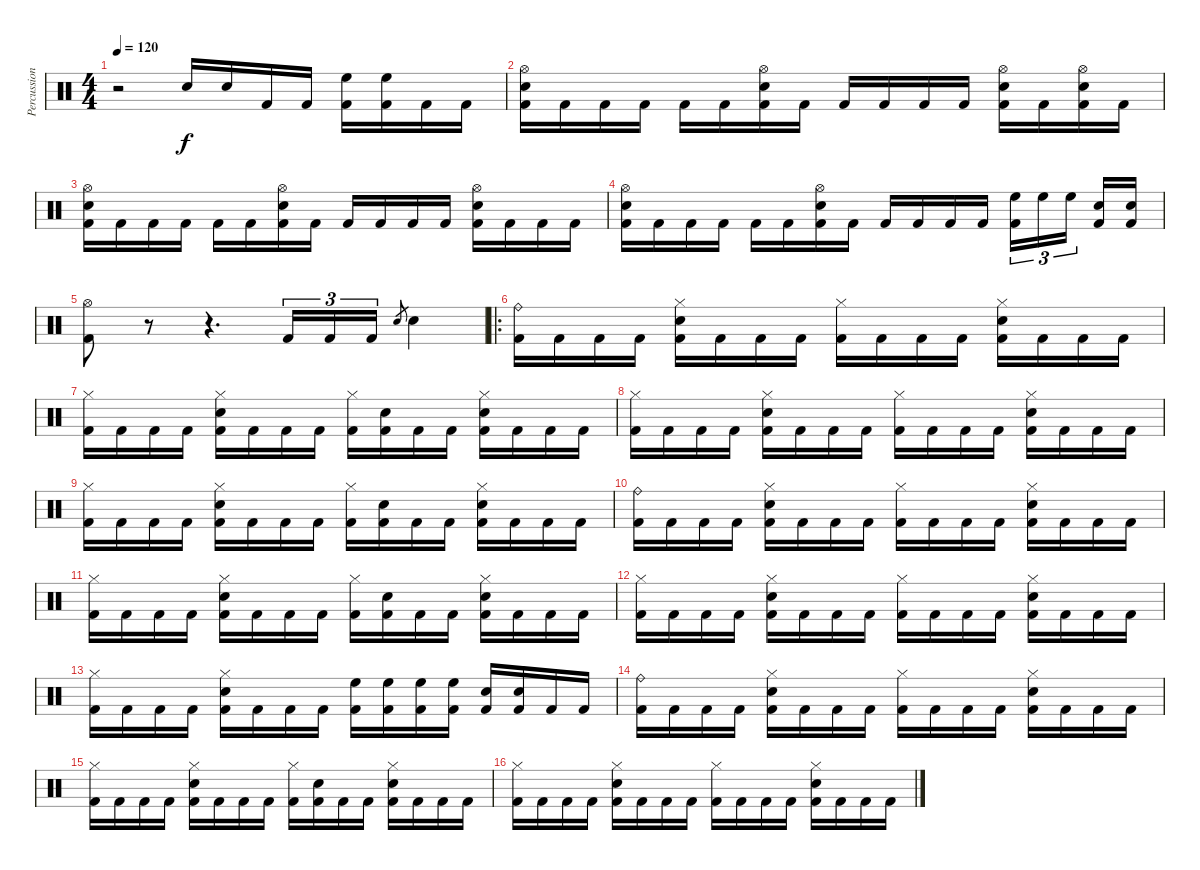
\track ("Percussions" "Percussion") {instrument percussion}
\staff {score}
\articulation defaults
\ts (4 4)
\tempo 120
\clef neutral
\ks c
r.2{dy f} "Snare (hit) 2".16 "Snare (hit) 2".16 "Kick (hit) 2".16 "Kick (hit) 2".16 ("High Floor Tom (hit)" "Kick (hit) 2").16 ("High Floor Tom (hit)" "Kick (hit) 2").16 "Kick (hit) 2".16 "Kick (hit) 2".16 |
("Hi-Hat (open)" "Snare (hit) 2" "Kick (hit) 2").16 "Kick (hit) 2".16 "Kick (hit) 2".16 "Kick (hit) 2".16 "Kick (hit) 2".16 "Kick (hit) 2".16 ("Hi-Hat (open)" "Snare (hit) 2" "Kick (hit) 2").16 "Kick (hit) 2".16 "Kick (hit) 2".16 "Kick (hit) 2".16 "Kick (hit) 2".16 "Kick (hit) 2".16 ("Hi-Hat (open)" "Snare (hit) 2" "Kick (hit) 2").16 "Kick (hit) 2".16 ("Hi-Hat (open)" "Snare (hit) 2" "Kick (hit) 2").16 "Kick (hit) 2".16 |
("Hi-Hat (open)" "Snare (hit) 2" "Kick (hit) 2").16 "Kick (hit) 2".16 "Kick (hit) 2".16 "Kick (hit) 2".16 "Kick (hit) 2".16 "Kick (hit) 2".16 ("Hi-Hat (open)" "Snare (hit) 2" "Kick (hit) 2").16 "Kick (hit) 2".16 "Kick (hit) 2".16 "Kick (hit) 2".16 "Kick (hit) 2".16 "Kick (hit) 2".16 ("Hi-Hat (open)" "Snare (hit) 2" "Kick (hit) 2").16 "Kick (hit) 2".16 "Kick (hit) 2".16 "Kick (hit) 2".16 |
("Hi-Hat (open)" "Snare (hit) 2" "Kick (hit) 2").16 "Kick (hit) 2".16 "Kick (hit) 2".16 "Kick (hit) 2".16 "Kick (hit) 2".16 "Kick (hit) 2".16 ("Hi-Hat (open)" "Snare (hit) 2" "Kick (hit) 2").16 "Kick (hit) 2".16 "Kick (hit) 2".16 "Kick (hit) 2".16 "Kick (hit) 2".16 "Kick (hit) 2".16 ("High Floor Tom (hit)" "Kick (hit) 2").16{tu (3 2)} "High Floor Tom (hit)".16{tu (3 2)} "High Floor Tom (hit)".16{tu (3 2)} ("Snare (hit) 2" "Kick (hit) 2").16 ("Snare (hit) 2" "Kick (hit) 2").16 |
("Hi-Hat (open)" "Kick (hit) 2").8 r.8 r.4{d} "Kick (hit) 2".16{tu (3 2)} "Kick (hit) 2".16{tu (3 2)} "Kick (hit) 2".16{tu (3 2)} "Snare (hit) 2".8{gr} "Snare (hit) 2".4 |
\ro
("Ride (bell)" "Kick (hit) 2").16 "Kick (hit) 2".16 "Kick (hit) 2".16 "Kick (hit) 2".16 ("Hi-Hat (closed)" "Snare (hit) 2" "Kick (hit) 2").16 "Kick (hit) 2".16 "Kick (hit) 2".16 "Kick (hit) 2".16 ("Hi-Hat (closed)" "Kick (hit) 2").16 "Kick (hit) 2".16 "Kick (hit) 2".16 "Kick (hit) 2".16 ("Hi-Hat (closed)" "Snare (hit) 2" "Kick (hit) 2").16 "Kick (hit) 2".16 "Kick (hit) 2".16 "Kick (hit) 2".16 |
("Hi-Hat (closed)" "Kick (hit) 2").16 "Kick (hit) 2".16 "Kick (hit) 2".16 "Kick (hit) 2".16 ("Hi-Hat (closed)" "Snare (hit) 2" "Kick (hit) 2").16 "Kick (hit) 2".16 "Kick (hit) 2".16 "Kick (hit) 2".16 ("Hi-Hat (closed)" "Kick (hit) 2").16 ("Snare (hit) 2" "Kick (hit) 2").16 "Kick (hit) 2".16 "Kick (hit) 2".16 ("Hi-Hat (closed)" "Snare (hit) 2" "Kick (hit) 2").16 "Kick (hit) 2".16 "Kick (hit) 2".16 "Kick (hit) 2".16 |
("Hi-Hat (closed)" "Kick (hit) 2").16 "Kick (hit) 2".16 "Kick (hit) 2".16 "Kick (hit) 2".16 ("Hi-Hat (closed)" "Snare (hit) 2" "Kick (hit) 2").16 "Kick (hit) 2".16 "Kick (hit) 2".16 "Kick (hit) 2".16 ("Hi-Hat (closed)" "Kick (hit) 2").16 "Kick (hit) 2".16 "Kick (hit) 2".16 "Kick (hit) 2".16 ("Hi-Hat (closed)" "Snare (hit) 2" "Kick (hit) 2").16 "Kick (hit) 2".16 "Kick (hit) 2".16 "Kick (hit) 2".16 |
("Hi-Hat (closed)" "Kick (hit) 2").16 "Kick (hit) 2".16 "Kick (hit) 2".16 "Kick (hit) 2".16 ("Hi-Hat (closed)" "Snare (hit) 2" "Kick (hit) 2").16 "Kick (hit) 2".16 "Kick (hit) 2".16 "Kick (hit) 2".16 ("Hi-Hat (closed)" "Kick (hit) 2").16 ("Snare (hit) 2" "Kick (hit) 2").16 "Kick (hit) 2".16 "Kick (hit) 2".16 ("Hi-Hat (closed)" "Snare (hit) 2" "Kick (hit) 2").16 "Kick (hit) 2".16 "Kick (hit) 2".16 "Kick (hit) 2".16 |
("Ride (bell)" "Kick (hit) 2").16 "Kick (hit) 2".16 "Kick (hit) 2".16 "Kick (hit) 2".16 ("Hi-Hat (closed)" "Snare (hit) 2" "Kick (hit) 2").16 "Kick (hit) 2".16 "Kick (hit) 2".16 "Kick (hit) 2".16 ("Hi-Hat (closed)" "Kick (hit) 2").16 "Kick (hit) 2".16 "Kick (hit) 2".16 "Kick (hit) 2".16 ("Hi-Hat (closed)" "Snare (hit) 2" "Kick (hit) 2").16 "Kick (hit) 2".16 "Kick (hit) 2".16 "Kick (hit) 2".16 |
("Hi-Hat (closed)" "Kick (hit) 2").16 "Kick (hit) 2".16 "Kick (hit) 2".16 "Kick (hit) 2".16 ("Hi-Hat (closed)" "Snare (hit) 2" "Kick (hit) 2").16 "Kick (hit) 2".16 "Kick (hit) 2".16 "Kick (hit) 2".16 ("Hi-Hat (closed)" "Kick (hit) 2").16 ("Snare (hit) 2" "Kick (hit) 2").16 "Kick (hit) 2".16 "Kick (hit) 2".16 ("Hi-Hat (closed)" "Snare (hit) 2" "Kick (hit) 2").16 "Kick (hit) 2".16 "Kick (hit) 2".16 "Kick (hit) 2".16 |
("Hi-Hat (closed)" "Kick (hit) 2").16 "Kick (hit) 2".16 "Kick (hit) 2".16 "Kick (hit) 2".16 ("Hi-Hat (closed)" "Snare (hit) 2" "Kick (hit) 2").16 "Kick (hit) 2".16 "Kick (hit) 2".16 "Kick (hit) 2".16 ("Hi-Hat (closed)" "Kick (hit) 2").16 "Kick (hit) 2".16 "Kick (hit) 2".16 "Kick (hit) 2".16 ("Hi-Hat (closed)" "Snare (hit) 2" "Kick (hit) 2").16 "Kick (hit) 2".16 "Kick (hit) 2".16 "Kick (hit) 2".16 |
("Hi-Hat (closed)" "Kick (hit) 2").16 "Kick (hit) 2".16 "Kick (hit) 2".16 "Kick (hit) 2".16 ("Hi-Hat (closed)" "Snare (hit) 2" "Kick (hit) 2").16 "Kick (hit) 2".16 "Kick (hit) 2".16 "Kick (hit) 2".16 ("High Floor Tom (hit)" "Kick (hit) 2").16 ("High Floor Tom (hit)" "Kick (hit) 2").16 ("High Floor Tom (hit)" "Kick (hit) 2").16 ("High Floor Tom (hit)" "Kick (hit) 2").16 ("Snare (hit) 2" "Kick (hit) 2").16 ("Snare (hit) 2" "Kick (hit) 2").16 "Kick (hit) 2".16 "Kick (hit) 2".16 |
("Ride (bell)" "Kick (hit) 2").16 "Kick (hit) 2".16 "Kick (hit) 2".16 "Kick (hit) 2".16 ("Hi-Hat (closed)" "Snare (hit) 2" "Kick (hit) 2").16 "Kick (hit) 2".16 "Kick (hit) 2".16 "Kick (hit) 2".16 ("Hi-Hat (closed)" "Kick (hit) 2").16 "Kick (hit) 2".16 "Kick (hit) 2".16 "Kick (hit) 2".16 ("Hi-Hat (closed)" "Snare (hit) 2" "Kick (hit) 2").16 "Kick (hit) 2".16 "Kick (hit) 2".16 "Kick (hit) 2".16 |
("Hi-Hat (closed)" "Kick (hit) 2").16 "Kick (hit) 2".16 "Kick (hit) 2".16 "Kick (hit) 2".16 ("Hi-Hat (closed)" "Snare (hit) 2" "Kick (hit) 2").16 "Kick (hit) 2".16 "Kick (hit) 2".16 "Kick (hit) 2".16 ("Hi-Hat (closed)" "Kick (hit) 2").16 ("Snare (hit) 2" "Kick (hit) 2").16 "Kick (hit) 2".16 "Kick (hit) 2".16 ("Hi-Hat (closed)" "Snare (hit) 2" "Kick (hit) 2").16 "Kick (hit) 2".16 "Kick (hit) 2".16 "Kick (hit) 2".16 |
("Hi-Hat (closed)" "Kick (hit) 2").16 "Kick (hit) 2".16 "Kick (hit) 2".16 "Kick (hit) 2".16 ("Hi-Hat (closed)" "Snare (hit) 2" "Kick (hit) 2").16 "Kick (hit) 2".16 "Kick (hit) 2".16 "Kick (hit) 2".16 ("Hi-Hat (closed)" "Kick (hit) 2").16 "Kick (hit) 2".16 "Kick (hit) 2".16 "Kick (hit) 2".16 ("Hi-Hat (closed)" "Snare (hit) 2" "Kick (hit) 2").16 "Kick (hit) 2".16 "Kick (hit) 2".16 "Kick (hit) 2".16
